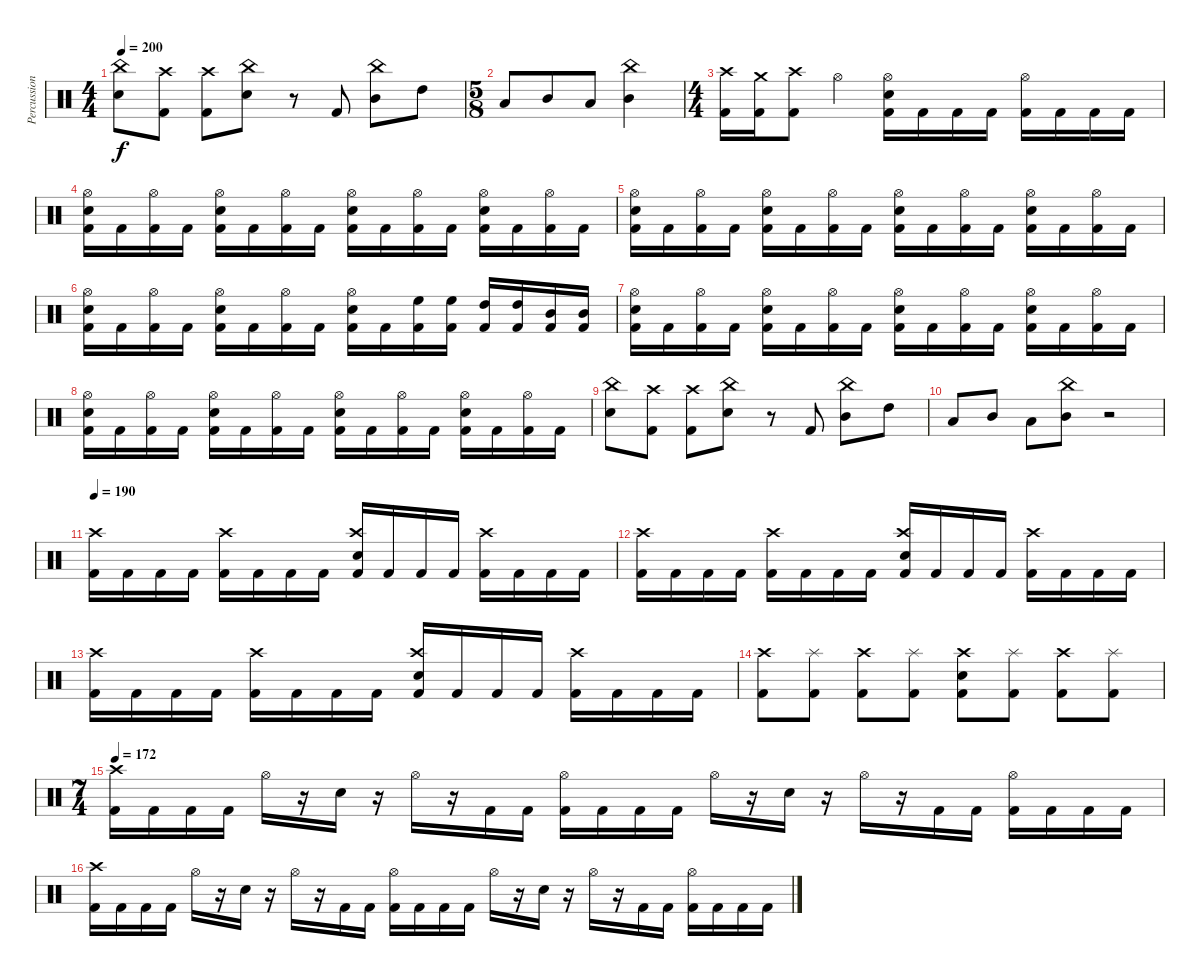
\track ("Percussion" "Percussion") {instrument percussion}
\staff {score}
\articulation defaults
\ts (4 4)
\tempo 200
\clef neutral
\ks c
("China (hit)" "Electric Snare (hit)").8{dy f} ("Crash high (hit)" "Kick (hit) 2").8 ("Crash high (hit)" "Kick (hit) 2").8 ("China (hit)" "Electric Snare (hit)").8 r.8 "Kick (hit) 2".8 ("China (hit)" "Mid Tom (hit)").8 "High Tom (hit)".8 |
\ts (5 8)
"Low Tom (hit)".8 "Mid Tom (hit)".8 "Low Tom (hit)".8 ("China (hit)" "Mid Tom (hit)").4 |
\ts (4 4)
("Crash high (hit)" "Kick (hit) 2").16 ("Crash medium (hit)" "Kick (hit) 2").16 ("Crash high (hit)" "Kick (hit) 2").8 "Hi-Hat (open)".4 ("Hi-Hat (open)" "Electric Snare (hit)" "Kick (hit) 2").16 "Kick (hit) 2".16 "Kick (hit) 2".16 "Kick (hit) 2".16 ("Hi-Hat (open)" "Kick (hit) 2").16 "Kick (hit) 2".16 "Kick (hit) 2".16 "Kick (hit) 2".16 |
("Hi-Hat (open)" "Electric Snare (hit)" "Kick (hit) 2").16 "Kick (hit) 2".16 ("Hi-Hat (open)" "Kick (hit) 2").16 "Kick (hit) 2".16 ("Hi-Hat (open)" "Electric Snare (hit)" "Kick (hit) 2").16 "Kick (hit) 2".16 ("Hi-Hat (open)" "Kick (hit) 2").16 "Kick (hit) 2".16 ("Hi-Hat (open)" "Electric Snare (hit)" "Kick (hit) 2").16 "Kick (hit) 2".16 ("Hi-Hat (open)" "Kick (hit) 2").16 "Kick (hit) 2".16 ("Hi-Hat (open)" "Electric Snare (hit)" "Kick (hit) 2").16 "Kick (hit) 2".16 ("Hi-Hat (open)" "Kick (hit) 2").16 "Kick (hit) 2".16 |
("Hi-Hat (open)" "Electric Snare (hit)" "Kick (hit) 2").16 "Kick (hit) 2".16 ("Hi-Hat (open)" "Kick (hit) 2").16 "Kick (hit) 2".16 ("Hi-Hat (open)" "Electric Snare (hit)" "Kick (hit) 2").16 "Kick (hit) 2".16 ("Hi-Hat (open)" "Kick (hit) 2").16 "Kick (hit) 2".16 ("Hi-Hat (open)" "Electric Snare (hit)" "Kick (hit) 2").16 "Kick (hit) 2".16 ("Hi-Hat (open)" "Kick (hit) 2").16 "Kick (hit) 2".16 ("Hi-Hat (open)" "Electric Snare (hit)" "Kick (hit) 2").16 "Kick (hit) 2".16 ("Hi-Hat (open)" "Kick (hit) 2").16 "Kick (hit) 2".16 |
("Hi-Hat (open)" "Electric Snare (hit)" "Kick (hit) 2").16 "Kick (hit) 2".16 ("Hi-Hat (open)" "Kick (hit) 2").16 "Kick (hit) 2".16 ("Hi-Hat (open)" "Electric Snare (hit)" "Kick (hit) 2").16 "Kick (hit) 2".16 ("Hi-Hat (open)" "Kick (hit) 2").16 "Kick (hit) 2".16 ("Hi-Hat (open)" "Electric Snare (hit)" "Kick (hit) 2").16 "Kick (hit) 2".16 ("High Floor Tom (hit)" "Kick (hit) 2").16 ("High Floor Tom (hit)" "Kick (hit) 2").16 ("High Tom (hit)" "Kick (hit) 2").16 ("High Tom (hit)" "Kick (hit) 2").16 ("Mid Tom (hit)" "Kick (hit) 2").16 ("Mid Tom (hit)" "Kick (hit) 2").16 |
("Hi-Hat (open)" "Electric Snare (hit)" "Kick (hit) 2").16 "Kick (hit) 2".16 ("Hi-Hat (open)" "Kick (hit) 2").16 "Kick (hit) 2".16 ("Hi-Hat (open)" "Electric Snare (hit)" "Kick (hit) 2").16 "Kick (hit) 2".16 ("Hi-Hat (open)" "Kick (hit) 2").16 "Kick (hit) 2".16 ("Hi-Hat (open)" "Electric Snare (hit)" "Kick (hit) 2").16 "Kick (hit) 2".16 ("Hi-Hat (open)" "Kick (hit) 2").16 "Kick (hit) 2".16 ("Hi-Hat (open)" "Electric Snare (hit)" "Kick (hit) 2").16 "Kick (hit) 2".16 ("Hi-Hat (open)" "Kick (hit) 2").16 "Kick (hit) 2".16 |
("Hi-Hat (open)" "Electric Snare (hit)" "Kick (hit) 2").16 "Kick (hit) 2".16 ("Hi-Hat (open)" "Kick (hit) 2").16 "Kick (hit) 2".16 ("Hi-Hat (open)" "Electric Snare (hit)" "Kick (hit) 2").16 "Kick (hit) 2".16 ("Hi-Hat (open)" "Kick (hit) 2").16 "Kick (hit) 2".16 ("Hi-Hat (open)" "Electric Snare (hit)" "Kick (hit) 2").16 "Kick (hit) 2".16 ("Hi-Hat (open)" "Kick (hit) 2").16 "Kick (hit) 2".16 ("Hi-Hat (open)" "Electric Snare (hit)" "Kick (hit) 2").16 "Kick (hit) 2".16 ("Hi-Hat (open)" "Kick (hit) 2").16 "Kick (hit) 2".16 |
("China (hit)" "Electric Snare (hit)").8 ("Crash high (hit)" "Kick (hit) 2").8 ("Crash high (hit)" "Kick (hit) 2").8 ("China (hit)" "Electric Snare (hit)").8 r.8 "Kick (hit) 2".8 ("China (hit)" "Mid Tom (hit)").8 "High Tom (hit)".8 |
"Low Tom (hit)".8 "Mid Tom (hit)".8 "Low Tom (hit)".8 ("China (hit)" "Mid Tom (hit)").8 r.2 |
\tempo 190
("Crash high (hit)" "Kick (hit) 2").16 "Kick (hit) 2".16 "Kick (hit) 2".16 "Kick (hit) 2".16 ("Crash high (hit)" "Kick (hit) 2").16 "Kick (hit) 2".16 "Kick (hit) 2".16 "Kick (hit) 2".16 ("Crash high (hit)" "Electric Snare (hit)" "Kick (hit) 2").16 "Kick (hit) 2".16 "Kick (hit) 2".16 "Kick (hit) 2".16 ("Crash high (hit)" "Kick (hit) 2").16 "Kick (hit) 2".16 "Kick (hit) 2".16 "Kick (hit) 2".16 |
("Crash high (hit)" "Kick (hit) 2").16 "Kick (hit) 2".16 "Kick (hit) 2".16 "Kick (hit) 2".16 ("Crash high (hit)" "Kick (hit) 2").16 "Kick (hit) 2".16 "Kick (hit) 2".16 "Kick (hit) 2".16 ("Crash high (hit)" "Electric Snare (hit)" "Kick (hit) 2").16 "Kick (hit) 2".16 "Kick (hit) 2".16 "Kick (hit) 2".16 ("Crash high (hit)" "Kick (hit) 2").16 "Kick (hit) 2".16 "Kick (hit) 2".16 "Kick (hit) 2".16 |
("Crash high (hit)" "Kick (hit) 2").16 "Kick (hit) 2".16 "Kick (hit) 2".16 "Kick (hit) 2".16 ("Crash high (hit)" "Kick (hit) 2").16 "Kick (hit) 2".16 "Kick (hit) 2".16 "Kick (hit) 2".16 ("Crash high (hit)" "Electric Snare (hit)" "Kick (hit) 2").16 "Kick (hit) 2".16 "Kick (hit) 2".16 "Kick (hit) 2".16 ("Crash high (hit)" "Kick (hit) 2").16 "Kick (hit) 2".16 "Kick (hit) 2".16 "Kick (hit) 2".16 |
("Crash high (hit)" "Kick (hit) 2").8 ("Splash (hit)" "Kick (hit) 2").8 ("Crash high (hit)" "Kick (hit) 2").8 ("Splash (hit)" "Kick (hit) 2").8 ("Crash high (hit)" "Electric Snare (hit)" "Kick (hit) 2").8 ("Splash (hit)" "Kick (hit) 2").8 ("Crash high (hit)" "Kick (hit) 2").8 ("Splash (hit)" "Kick (hit) 2").8 |
\ts (7 4)
\tempo 172
("Crash high (hit)" "Kick (hit) 2").16 "Kick (hit) 2".16 "Kick (hit) 2".16 "Kick (hit) 2".16 "Hi-Hat (open)".16 r.16 "Electric Snare (hit)".16 r.16 "Hi-Hat (open)".16 r.16 "Kick (hit) 2".16 "Kick (hit) 2".16 ("Hi-Hat (open)" "Kick (hit) 2").16 "Kick (hit) 2".16 "Kick (hit) 2".16 "Kick (hit) 2".16 "Hi-Hat (open)".16 r.16 "Electric Snare (hit)".16 r.16 "Hi-Hat (open)".16 r.16 "Kick (hit) 2".16 "Kick (hit) 2".16 ("Hi-Hat (open)" "Kick (hit) 2").16 "Kick (hit) 2".16 "Kick (hit) 2".16 "Kick (hit) 2".16 |
("Crash high (hit)" "Kick (hit) 2").16 "Kick (hit) 2".16 "Kick (hit) 2".16 "Kick (hit) 2".16 "Hi-Hat (open)".16 r.16 "Electric Snare (hit)".16 r.16 "Hi-Hat (open)".16 r.16 "Kick (hit) 2".16 "Kick (hit) 2".16 ("Hi-Hat (open)" "Kick (hit) 2").16 "Kick (hit) 2".16 "Kick (hit) 2".16 "Kick (hit) 2".16 "Hi-Hat (open)".16 r.16 "Electric Snare (hit)".16 r.16 "Hi-Hat (open)".16 r.16 "Kick (hit) 2".16 "Kick (hit) 2".16 ("Hi-Hat (open)" "Kick (hit) 2").16 "Kick (hit) 2".16 "Kick (hit) 2".16 "Kick (hit) 2".16
